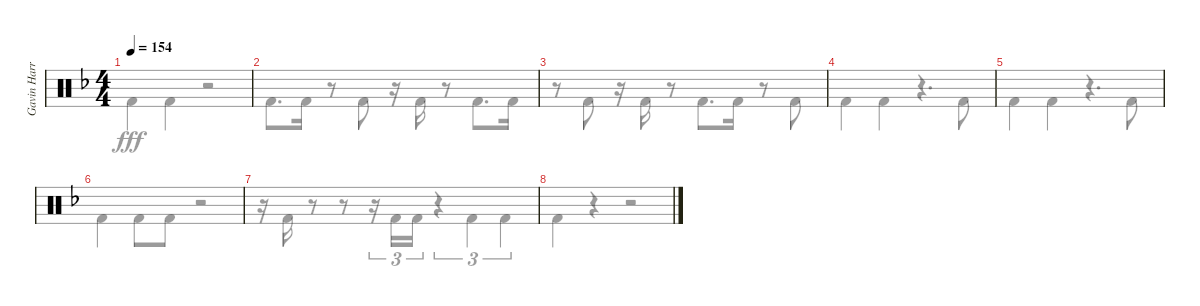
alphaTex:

\track ("Gavin Harrison Bass Pedal" "Gavin Harr") {instrument percussion}
\staff {score}
\articulation defaults
\voice
\ts (4 4)
\tempo 154
\clef neutral
\ks dminor
|
|
|
|
|
|
|
|
\voice
\clef neutral
\ks dminor "Kick (hit) 2".4{dy fff} "Kick (hit) 2".4
r.2 |
"Kick (hit) 2".8{d} "Kick (hit) 2".16 r.8 "Kick (hit) 2".8 r.16 "Kick (hit) 2".16 r.8 "Kick (hit) 2".8{d} "Kick (hit) 2".16 |
r.8 "Kick (hit) 2".8 r.16 "Kick (hit) 2".16 r.8 "Kick (hit) 2".8{d} "Kick (hit) 2".16 r.8 "Kick (hit) 2".8 |
"Kick (hit) 2".4 "Kick (hit) 2".4 r.4{d} "Kick (hit) 2".8 |
"Kick (hit) 2".4 "Kick (hit) 2".4 r.4{d} "Kick (hit) 2".8 |
"Kick (hit) 2".4 "Kick (hit) 2".8 "Kick (hit) 2".8 r.2 |
r.16 "Kick (hit) 2".16 r.8 r.8 r.16{tu (3 2)} "Kick (hit) 2".16{tu (3 2)} "Kick (hit) 2".16{tu (3 2)} r.4{tu (3 2)} "Kick (hit) 2".4{tu (3 2)} "Kick (hit) 2".4{tu (3 2)} |
"Kick (hit) 2".4 r.4 r.2 |
